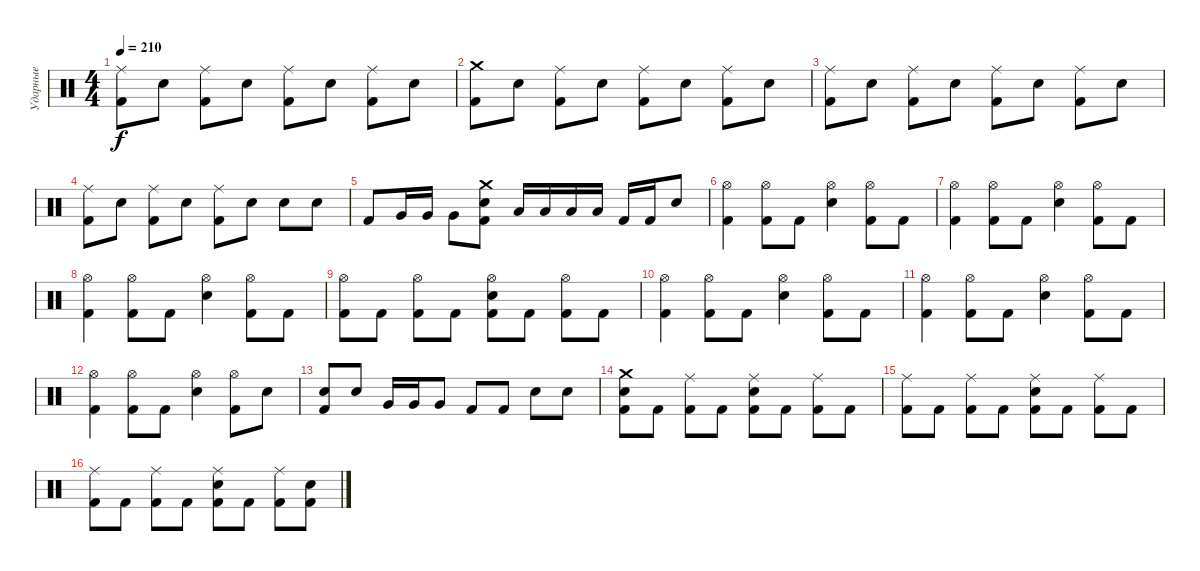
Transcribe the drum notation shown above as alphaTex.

\track ("Ударные" "Ударные") {instrument percussion}
\staff {score}
\articulation defaults
\ts (4 4)
\tempo 210
\clef neutral
\ks c
("Ride (middle)" "Kick (hit) 2").8{dy f} "Snare (hit) 2".8 ("Ride (middle)" "Kick (hit) 2").8 "Snare (hit) 2".8 ("Ride (middle)" "Kick (hit) 2").8 "Snare (hit) 2".8 ("Ride (middle)" "Kick (hit) 2").8 "Snare (hit) 2".8 |
("Crash medium (hit)" "Kick (hit) 2").8 "Snare (hit) 2".8 ("Ride (middle)" "Kick (hit) 2").8 "Snare (hit) 2".8 ("Ride (middle)" "Kick (hit) 2").8 "Snare (hit) 2".8 ("Ride (middle)" "Kick (hit) 2").8 "Snare (hit) 2".8 |
("Ride (middle)" "Kick (hit) 2").8 "Snare (hit) 2".8 ("Ride (middle)" "Kick (hit) 2").8 "Snare (hit) 2".8 ("Ride (middle)" "Kick (hit) 2").8 "Snare (hit) 2".8 ("Ride (middle)" "Kick (hit) 2").8 "Snare (hit) 2".8 |
("Ride (middle)" "Kick (hit) 2").8 "Snare (hit) 2".8 ("Ride (middle)" "Kick (hit) 2").8 "Snare (hit) 2".8 ("Ride (middle)" "Kick (hit) 2").8 "Snare (hit) 2".8 "Snare (hit) 2".8 "Snare (hit) 2".8 |
"Kick (hit) 2".8 "Very Low Tom (hit)".16 "Very Low Tom (hit)".16 "Very Low Tom (hit)".8 ("Crash medium (hit)" "Snare (hit) 2" "Kick (hit) 2").8 "Low Tom (hit)".16 "Low Tom (hit)".16 "Low Tom (hit)".16 "Low Tom (hit)".16 "Kick (hit) 2".16 "Kick (hit) 2".16 "Snare (hit) 2".8 |
("Hi-Hat (open)" "Kick (hit) 2").4 ("Hi-Hat (open)" "Kick (hit) 2").8 "Kick (hit) 2".8 ("Hi-Hat (open)" "Snare (hit) 2").4 ("Hi-Hat (open)" "Kick (hit) 2").8 "Kick (hit) 2".8 |
("Hi-Hat (open)" "Kick (hit) 2").4 ("Hi-Hat (open)" "Kick (hit) 2").8 "Kick (hit) 2".8 ("Hi-Hat (open)" "Snare (hit) 2").4 ("Hi-Hat (open)" "Kick (hit) 2").8 "Kick (hit) 2".8 |
("Hi-Hat (open)" "Kick (hit) 2").4 ("Hi-Hat (open)" "Kick (hit) 2").8 "Kick (hit) 2".8 ("Hi-Hat (open)" "Snare (hit) 2").4 ("Hi-Hat (open)" "Kick (hit) 2").8 "Kick (hit) 2".8 |
("Hi-Hat (open)" "Kick (hit) 2").8 "Kick (hit) 2".8 ("Hi-Hat (open)" "Kick (hit) 2").8 "Kick (hit) 2".8 ("Hi-Hat (open)" "Snare (hit) 2" "Kick (hit) 2").8 "Kick (hit) 2".8 ("Hi-Hat (open)" "Kick (hit) 2").8 "Kick (hit) 2".8 |
("Hi-Hat (open)" "Kick (hit) 2").4 ("Hi-Hat (open)" "Kick (hit) 2").8 "Kick (hit) 2".8 ("Hi-Hat (open)" "Snare (hit) 2").4 ("Hi-Hat (open)" "Kick (hit) 2").8 "Kick (hit) 2".8 |
("Hi-Hat (open)" "Kick (hit) 2").4 ("Hi-Hat (open)" "Kick (hit) 2").8 "Kick (hit) 2".8 ("Hi-Hat (open)" "Snare (hit) 2").4 ("Hi-Hat (open)" "Kick (hit) 2").8 "Kick (hit) 2".8 |
("Hi-Hat (open)" "Kick (hit) 2").4 ("Hi-Hat (open)" "Kick (hit) 2").8 "Kick (hit) 2".8 ("Hi-Hat (open)" "Snare (hit) 2").4 ("Hi-Hat (open)" "Kick (hit) 2").8 "Snare (hit) 2".8 |
("Snare (hit) 2" "Kick (hit) 2").8 "Snare (hit) 2".8 "Very Low Tom (hit)".16 "Very Low Tom (hit)".16 "Very Low Tom (hit)".8 "Kick (hit) 2".8 "Kick (hit) 2".8 "Snare (hit) 2".8 "Snare (hit) 2".8 |
("Crash medium (hit)" "Snare (hit) 2" "Kick (hit) 2").8 "Kick (hit) 2".8 ("Ride (middle)" "Kick (hit) 2").8 "Kick (hit) 2".8 ("Ride (middle)" "Snare (hit) 2" "Kick (hit) 2").8 "Kick (hit) 2".8 ("Ride (middle)" "Kick (hit) 2").8 "Kick (hit) 2".8 |
("Ride (middle)" "Kick (hit) 2").8 "Kick (hit) 2".8 ("Ride (middle)" "Kick (hit) 2").8 "Kick (hit) 2".8 ("Ride (middle)" "Snare (hit) 2" "Kick (hit) 2").8 "Kick (hit) 2".8 ("Ride (middle)" "Kick (hit) 2").8 "Kick (hit) 2".8 |
("Ride (middle)" "Kick (hit) 2").8 "Kick (hit) 2".8 ("Ride (middle)" "Kick (hit) 2").8 "Kick (hit) 2".8 ("Ride (middle)" "Snare (hit) 2" "Kick (hit) 2").8 "Kick (hit) 2".8 ("Ride (middle)" "Kick (hit) 2").8 ("Snare (hit) 2" "Kick (hit) 2").8
